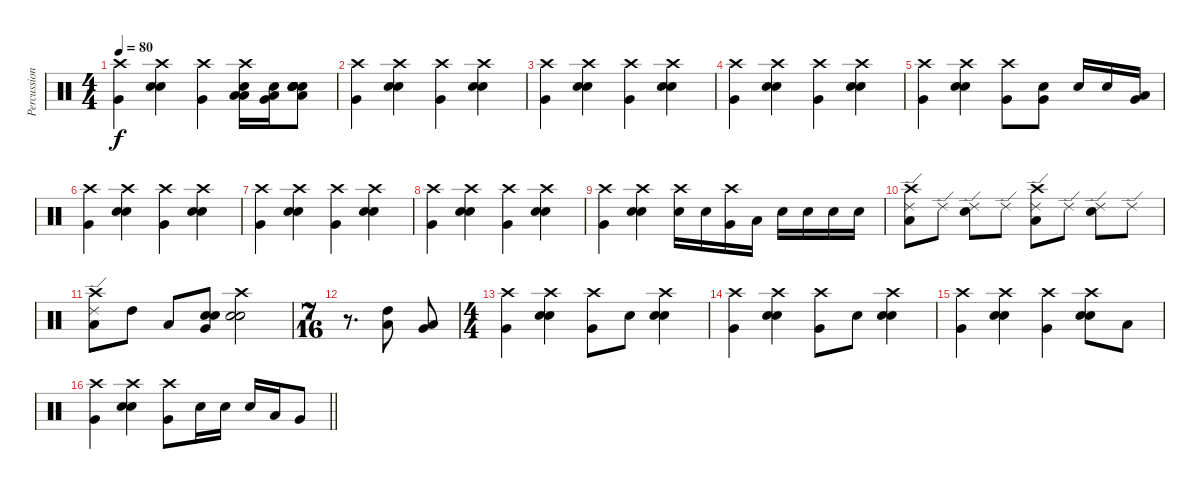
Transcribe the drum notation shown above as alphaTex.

\track ("Percussion" "Percussion") {instrument percussion}
\staff {score}
\articulation defaults
\ts (4 4)
\tempo 80
\clef neutral
\ks c
("Crash high (hit)" "Very Low Tom (hit)").4{dy f} ("Crash high (hit)" "Snare (hit) 2" "Snare (hit) 2").4 ("Crash high (hit)" "Very Low Tom (hit)").4 ("Crash high (hit)" "Low Tom (hit)" "Low Floor Tom (hit)" "Snare (hit) 2").16 ("Very Low Tom (hit)" "Low Floor Tom (hit)" "Snare (hit) 2").16 ("Snare (hit) 2" "Snare (hit) 2" "Low Floor Tom (hit)" "Snare (hit) 2" "Snare (hit) 2" "Snare (hit) 2").8 |
("Crash high (hit)" "Very Low Tom (hit)").4 ("Crash high (hit)" "Snare (hit) 2" "Snare (hit) 2").4 ("Crash high (hit)" "Very Low Tom (hit)").4 ("Crash high (hit)" "Snare (hit) 2" "Snare (hit) 2").4 |
("Crash high (hit)" "Very Low Tom (hit)").4 ("Crash high (hit)" "Snare (hit) 2" "Snare (hit) 2").4 ("Crash high (hit)" "Very Low Tom (hit)").4 ("Crash high (hit)" "Snare (hit) 2" "Snare (hit) 2").4 |
("Crash high (hit)" "Very Low Tom (hit)").4 ("Crash high (hit)" "Snare (hit) 2" "Snare (hit) 2").4 ("Crash high (hit)" "Very Low Tom (hit)").4 ("Crash high (hit)" "Snare (hit) 2" "Snare (hit) 2").4 |
("Crash high (hit)" "Very Low Tom (hit)").4 ("Crash high (hit)" "Snare (hit) 2" "Snare (hit) 2").4 ("Crash high (hit)" "Very Low Tom (hit)").8 ("Very Low Tom (hit)" "Snare (hit) 2").8 "Snare (hit) 2".16 "Snare (hit) 2".16 ("Low Tom (hit)" "Very Low Tom (hit)").16 |
("Crash high (hit)" "Very Low Tom (hit)").4 ("Crash high (hit)" "Snare (hit) 2" "Snare (hit) 2").4 ("Crash high (hit)" "Very Low Tom (hit)").4 ("Crash high (hit)" "Snare (hit) 2" "Snare (hit) 2").4 |
("Crash high (hit)" "Very Low Tom (hit)").4 ("Crash high (hit)" "Snare (hit) 2" "Snare (hit) 2").4 ("Crash high (hit)" "Very Low Tom (hit)").4 ("Crash high (hit)" "Snare (hit) 2" "Snare (hit) 2").4 |
("Crash high (hit)" "Very Low Tom (hit)").4 ("Crash high (hit)" "Snare (hit) 2" "Snare (hit) 2").4 ("Crash high (hit)" "Very Low Tom (hit)").4 ("Crash high (hit)" "Snare (hit) 2" "Snare (hit) 2").4 |
("Crash high (hit)" "Very Low Tom (hit)").4 ("Crash high (hit)" "Snare (hit) 2" "Snare (hit) 2").4 ("Crash high (hit)" "Snare (hit) 2").16 "Snare (hit) 2".16 ("Crash high (hit)" "Very Low Tom (hit)").16 "Low Floor Tom (hit)".16 "Snare (hit) 2".16 "Snare (hit) 2".16 "Snare (hit) 2".16 "Snare (hit) 2".16 |
("Crash high (hit)" "Ride (edge) 2" "Low Floor Tom (hit)").8 "Ride (edge) 2".8 ("Ride (edge) 2" "Snare (hit) 2").8 "Ride (edge) 2".8 ("Crash high (hit)" "Ride (edge) 2" "Low Floor Tom (hit)").8 "Ride (edge) 2".8 ("Ride (edge) 2" "Snare (hit) 2").8 "Ride (edge) 2".8 |
("Crash high (hit)" "Ride (edge) 2" "Low Floor Tom (hit)").8 "High Tom (hit)".8 "Low Tom (hit)".8 ("Snare (hit) 2" "Snare (hit) 2" "Very Low Tom (hit)").8 ("Crash high (hit)" "Snare (hit) 2" "Snare (hit) 2").2 |
\ts (7 16)
r.8{d} ("Low Tom (hit)" "High Tom (hit)").8 ("Low Floor Tom (hit)" "Very Low Tom (hit)").8 |
\ts (4 4)
("Crash high (hit)" "Very Low Tom (hit)").4 ("Crash high (hit)" "Snare (hit) 2" "Snare (hit) 2").4 ("Crash high (hit)" "Very Low Tom (hit)").8 "Snare (hit) 2".8 ("Crash high (hit)" "Snare (hit) 2" "Snare (hit) 2").4 |
("Crash high (hit)" "Very Low Tom (hit)").4 ("Crash high (hit)" "Snare (hit) 2" "Snare (hit) 2").4 ("Crash high (hit)" "Very Low Tom (hit)").8 "Snare (hit) 2".8 ("Crash high (hit)" "Snare (hit) 2" "Snare (hit) 2").4 |
("Crash high (hit)" "Very Low Tom (hit)").4 ("Crash high (hit)" "Snare (hit) 2" "Snare (hit) 2").4 ("Crash high (hit)" "Very Low Tom (hit)").4 ("Crash high (hit)" "Snare (hit) 2" "Snare (hit) 2").8 "Low Floor Tom (hit)".8 |
\barLineRight lightlight
("Crash high (hit)" "Very Low Tom (hit)").4 ("Crash high (hit)" "Snare (hit) 2" "Snare (hit) 2").4 ("Crash high (hit)" "Very Low Tom (hit)").8 "Snare (hit) 2".16 "Snare (hit) 2".16 "Snare (hit) 2".16 "Low Tom (hit)".16 "Very Low Tom (hit)".8
